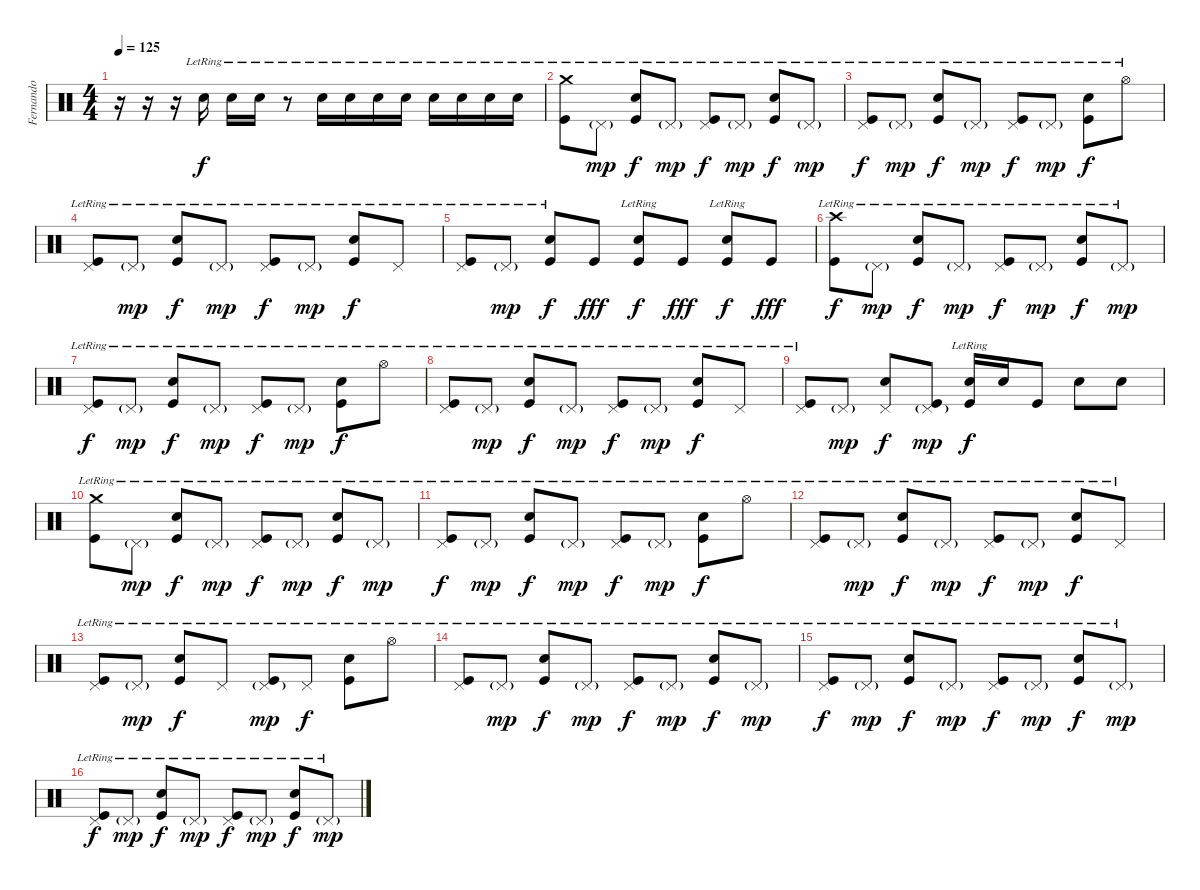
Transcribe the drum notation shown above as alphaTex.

\track ("Fernando" "Fernando") {instrument percussion}
\staff {score}
\articulation defaults
\ts (4 4)
\tempo 125
\clef neutral
\ks c
r.16{dy f} r.16 r.16 "Electric Snare (hit)"{lr}.16 "Electric Snare (hit)"{lr}.16 "Electric Snare (hit)"{lr}.16 r.8 "Electric Snare (hit)"{lr}.16 "Electric Snare (hit)"{lr}.16 "Electric Snare (hit)"{lr}.16 "Electric Snare (hit)"{lr}.16 "Electric Snare (hit)"{lr}.16 "Electric Snare (hit)"{lr}.16 "Electric Snare (hit)"{lr}.16 "Electric Snare (hit)"{lr}.16 |
("Crash medium (hit)"{lr} "Kick (hit)"{lr}).8 "Pedal Hi-Hat (hit)"{g lr}.8{dy mp} ("Electric Snare (hit)"{lr} "Kick (hit)"{lr}).8{dy f} "Pedal Hi-Hat (hit)"{g lr}.8{dy mp} ("Pedal Hi-Hat (hit)"{lr} "Kick (hit)"{lr}).8{dy f} "Pedal Hi-Hat (hit)"{g lr}.8{dy mp} ("Electric Snare (hit)"{lr} "Kick (hit)"{lr}).8{dy f} "Pedal Hi-Hat (hit)"{g lr}.8{dy mp} |
("Pedal Hi-Hat (hit)"{lr} "Kick (hit)"{lr}).8{dy f} "Pedal Hi-Hat (hit)"{g lr}.8{dy mp} ("Electric Snare (hit)"{lr} "Kick (hit)"{lr}).8{dy f} "Pedal Hi-Hat (hit)"{g lr}.8{dy mp} ("Pedal Hi-Hat (hit)"{lr} "Kick (hit)"{lr}).8{dy f} "Pedal Hi-Hat (hit)"{g lr}.8{dy mp} ("Electric Snare (hit)"{lr} "Kick (hit)"{lr}).8{dy f} "Hi-Hat (open)"{lr}.8 |
("Pedal Hi-Hat (hit)"{lr} "Kick (hit)"{lr}).8 "Pedal Hi-Hat (hit)"{g lr}.8{dy mp} ("Electric Snare (hit)"{lr} "Kick (hit)"{lr}).8{dy f} "Pedal Hi-Hat (hit)"{g lr}.8{dy mp} ("Pedal Hi-Hat (hit)"{lr} "Kick (hit)"{lr}).8{dy f} "Pedal Hi-Hat (hit)"{g lr}.8{dy mp} ("Electric Snare (hit)"{lr} "Kick (hit)"{lr}).8{dy f} "Pedal Hi-Hat (hit)"{lr}.8 |
("Pedal Hi-Hat (hit)"{lr} "Kick (hit)"{lr}).8 "Pedal Hi-Hat (hit)"{g lr}.8{dy mp} ("Electric Snare (hit)"{lr} "Kick (hit)"{lr}).8{dy f} "Kick (hit)".8{dy fff} ("Electric Snare (hit)" "Kick (hit)"{lr}).8{dy f} "Kick (hit)".8{dy fff} ("Electric Snare (hit)"{lr} "Kick (hit)"{lr}).8{dy f} "Kick (hit)".8{dy fff} |
("Crash high (hit)"{lr} "Kick (hit)"{lr}).8{dy f} "Pedal Hi-Hat (hit)"{g lr}.8{dy mp} ("Electric Snare (hit)"{lr} "Kick (hit)"{lr}).8{dy f} "Pedal Hi-Hat (hit)"{g lr}.8{dy mp} ("Pedal Hi-Hat (hit)"{lr} "Kick (hit)"{lr}).8{dy f} "Pedal Hi-Hat (hit)"{g lr}.8{dy mp} ("Electric Snare (hit)"{lr} "Kick (hit)"{lr}).8{dy f} "Pedal Hi-Hat (hit)"{g lr}.8{dy mp} |
("Pedal Hi-Hat (hit)"{lr} "Kick (hit)"{lr}).8{dy f} "Pedal Hi-Hat (hit)"{g lr}.8{dy mp} ("Electric Snare (hit)"{lr} "Kick (hit)"{lr}).8{dy f} "Pedal Hi-Hat (hit)"{g lr}.8{dy mp} ("Pedal Hi-Hat (hit)"{lr} "Kick (hit)"{lr}).8{dy f} "Pedal Hi-Hat (hit)"{g lr}.8{dy mp} ("Electric Snare (hit)"{lr} "Kick (hit)"{lr}).8{dy f} "Hi-Hat (open)"{lr}.8 |
("Pedal Hi-Hat (hit)"{lr} "Kick (hit)"{lr}).8 "Pedal Hi-Hat (hit)"{g lr}.8{dy mp} ("Electric Snare (hit)"{lr} "Kick (hit)"{lr}).8{dy f} "Pedal Hi-Hat (hit)"{g lr}.8{dy mp} ("Pedal Hi-Hat (hit)"{lr} "Kick (hit)"{lr}).8{dy f} "Pedal Hi-Hat (hit)"{g lr}.8{dy mp} ("Electric Snare (hit)"{lr} "Kick (hit)"{lr}).8{dy f} "Pedal Hi-Hat (hit)"{lr}.8 |
("Pedal Hi-Hat (hit)"{lr} "Kick (hit)"{lr}).8 "Pedal Hi-Hat (hit)"{g}.8{dy mp} ("Pedal Hi-Hat (hit)" "Electric Snare (hit)").8{dy f} ("Pedal Hi-Hat (hit)"{g} "Kick (hit)").8{dy mp} ("Electric Snare (hit)" "Kick (hit)"{lr}).16{dy f} "Electric Snare (hit)".16 "Kick (hit)".8 "Electric Snare (hit)".8 "Electric Snare (hit)".8 |
("Crash medium (hit)"{lr} "Kick (hit)"{lr}).8 "Pedal Hi-Hat (hit)"{g lr}.8{dy mp} ("Electric Snare (hit)"{lr} "Kick (hit)"{lr}).8{dy f} "Pedal Hi-Hat (hit)"{g lr}.8{dy mp} ("Pedal Hi-Hat (hit)"{lr} "Kick (hit)"{lr}).8{dy f} "Pedal Hi-Hat (hit)"{g lr}.8{dy mp} ("Electric Snare (hit)"{lr} "Kick (hit)"{lr}).8{dy f} "Pedal Hi-Hat (hit)"{g lr}.8{dy mp} |
("Pedal Hi-Hat (hit)"{lr} "Kick (hit)"{lr}).8{dy f} "Pedal Hi-Hat (hit)"{g lr}.8{dy mp} ("Electric Snare (hit)"{lr} "Kick (hit)"{lr}).8{dy f} "Pedal Hi-Hat (hit)"{g lr}.8{dy mp} ("Pedal Hi-Hat (hit)"{lr} "Kick (hit)"{lr}).8{dy f} "Pedal Hi-Hat (hit)"{g lr}.8{dy mp} ("Electric Snare (hit)"{lr} "Kick (hit)"{lr}).8{dy f} "Hi-Hat (open)"{lr}.8 |
("Pedal Hi-Hat (hit)"{lr} "Kick (hit)"{lr}).8 "Pedal Hi-Hat (hit)"{g lr}.8{dy mp} ("Electric Snare (hit)"{lr} "Kick (hit)"{lr}).8{dy f} "Pedal Hi-Hat (hit)"{g lr}.8{dy mp} ("Pedal Hi-Hat (hit)"{lr} "Kick (hit)"{lr}).8{dy f} "Pedal Hi-Hat (hit)"{g lr}.8{dy mp} ("Electric Snare (hit)"{lr} "Kick (hit)"{lr}).8{dy f} "Pedal Hi-Hat (hit)"{lr}.8 |
("Pedal Hi-Hat (hit)"{lr} "Kick (hit)"{lr}).8 "Pedal Hi-Hat (hit)"{g lr}.8{dy mp} ("Electric Snare (hit)"{lr} "Kick (hit)"{lr}).8{dy f} "Pedal Hi-Hat (hit)"{lr}.8 ("Pedal Hi-Hat (hit)"{g lr} "Kick (hit)"{lr}).8{dy mp} "Pedal Hi-Hat (hit)"{lr}.8{dy f} ("Electric Snare (hit)"{lr} "Kick (hit)"{lr}).8 "Hi-Hat (open)"{lr}.8 |
("Pedal Hi-Hat (hit)"{lr} "Kick (hit)"{lr}).8 "Pedal Hi-Hat (hit)"{g lr}.8{dy mp} ("Electric Snare (hit)"{lr} "Kick (hit)"{lr}).8{dy f} "Pedal Hi-Hat (hit)"{g lr}.8{dy mp} ("Pedal Hi-Hat (hit)"{lr} "Kick (hit)"{lr}).8{dy f} "Pedal Hi-Hat (hit)"{g lr}.8{dy mp} ("Electric Snare (hit)"{lr} "Kick (hit)"{lr}).8{dy f} "Pedal Hi-Hat (hit)"{g lr}.8{dy mp} |
("Pedal Hi-Hat (hit)"{lr} "Kick (hit)"{lr}).8{dy f} "Pedal Hi-Hat (hit)"{g lr}.8{dy mp} ("Electric Snare (hit)"{lr} "Kick (hit)"{lr}).8{dy f} "Pedal Hi-Hat (hit)"{g lr}.8{dy mp} ("Pedal Hi-Hat (hit)"{lr} "Kick (hit)"{lr}).8{dy f} "Pedal Hi-Hat (hit)"{g lr}.8{dy mp} ("Electric Snare (hit)"{lr} "Kick (hit)"{lr}).8{dy f} "Pedal Hi-Hat (hit)"{g lr}.8{dy mp} |
("Pedal Hi-Hat (hit)"{lr} "Kick (hit)"{lr}).8{dy f} "Pedal Hi-Hat (hit)"{g lr}.8{dy mp} ("Electric Snare (hit)"{lr} "Kick (hit)"{lr}).8{dy f} "Pedal Hi-Hat (hit)"{g lr}.8{dy mp} ("Pedal Hi-Hat (hit)"{lr} "Kick (hit)"{lr}).8{dy f} "Pedal Hi-Hat (hit)"{g lr}.8{dy mp} ("Electric Snare (hit)"{lr} "Kick (hit)"{lr}).8{dy f} "Pedal Hi-Hat (hit)"{g lr}.8{dy mp}
